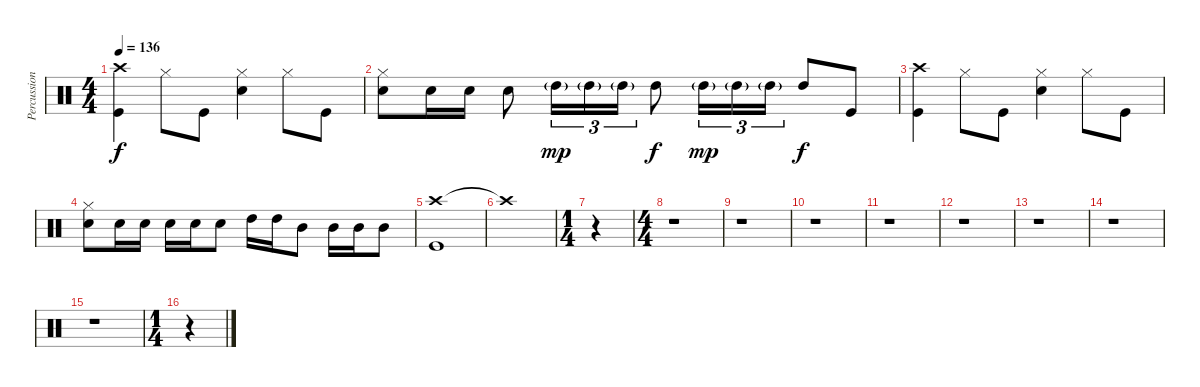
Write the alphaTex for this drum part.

\track ("Percussion" "Percussion") {instrument percussion}
\staff {score}
\articulation defaults
\ts (4 4)
\tempo 136
\clef neutral
\ks c
("Crash high (hit)" "Kick (hit)").4{dy f} "Hi-Hat (closed)".8 "Kick (hit)".8 ("Hi-Hat (closed)" "Snare (hit) 2").4 "Hi-Hat (closed)".8 "Kick (hit)".8 |
("Hi-Hat (closed)" "Snare (hit) 2").8 "Snare (hit) 2".16 "Snare (hit) 2".16 "Snare (hit) 2".8 "High Tom (hit)"{g}.16{tu (3 2) dy mp} "High Tom (hit)"{g}.16{tu (3 2)} "High Tom (hit)"{g}.16{tu (3 2)} "High Tom (hit)".8{dy f} "High Tom (hit)"{g}.16{tu (3 2) dy mp} "High Tom (hit)"{g}.16{tu (3 2)} "High Tom (hit)"{g}.16{tu (3 2)} "High Tom (hit)".8{dy f} "Kick (hit)".8 |
("Crash high (hit)" "Kick (hit)").4 "Hi-Hat (closed)".8 "Kick (hit)".8 ("Hi-Hat (closed)" "Snare (hit) 2").4 "Hi-Hat (closed)".8 "Kick (hit)".8 |
("Hi-Hat (closed)" "Snare (hit) 2").8 "Snare (hit) 2".16 "Snare (hit) 2".16 "Snare (hit) 2".16 "Snare (hit) 2".16 "Snare (hit) 2".8 "High Tom (hit)".16 "High Tom (hit)".16 "Mid Tom (hit)".8 "Mid Tom (hit)".16 "Mid Tom (hit)".16 "Mid Tom (hit)".8 |
("Crash high (hit)" "Kick (hit)").1 |
"Crash high (hit)"{t}.1 |
\ts (1 4)
r.4 |
\ts (4 4)
r.1 |
r.1 |
r.1 |
r.1 |
r.1 |
r.1 |
r.1 |
r.1 |
\ts (1 4)
r.4
